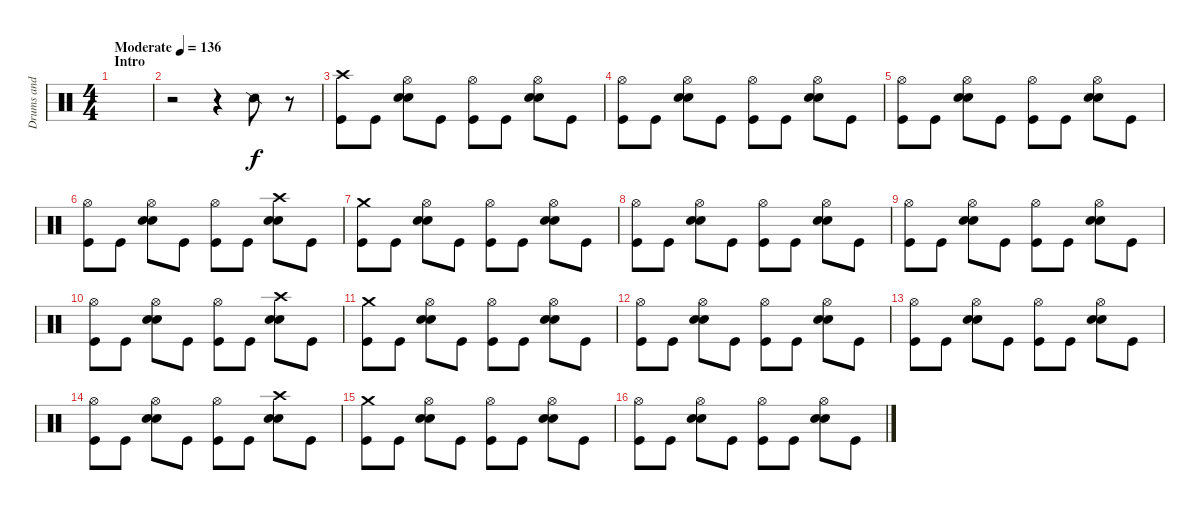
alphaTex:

\track ("Drums and Percussions" "Drums and ") {instrument percussion}
\staff {score}
\articulation defaults
\ts (4 4)
\section ("" "Intro")
\tempo (136 "Moderate")
\clef neutral
\ks c
|
r.2 r.4 "Snare (side stick) 2".8 r.8 |
("Crash high (hit)" "Kick (hit)").8 "Kick (hit)".8 ("Hi-Hat (open)" "Electric Snare (hit)" "Electric Snare (hit)").8 "Kick (hit)".8 ("Hi-Hat (open)" "Kick (hit)").8 "Kick (hit)".8 ("Hi-Hat (open)" "Electric Snare (hit)" "Electric Snare (hit)").8 "Kick (hit)".8 |
("Hi-Hat (open)" "Kick (hit)").8 "Kick (hit)".8 ("Hi-Hat (open)" "Electric Snare (hit)" "Electric Snare (hit)").8 "Kick (hit)".8 ("Hi-Hat (open)" "Kick (hit)").8 "Kick (hit)".8 ("Hi-Hat (open)" "Electric Snare (hit)" "Electric Snare (hit)").8 "Kick (hit)".8 |
("Hi-Hat (open)" "Kick (hit)").8 "Kick (hit)".8 ("Hi-Hat (open)" "Electric Snare (hit)" "Electric Snare (hit)").8 "Kick (hit)".8 ("Hi-Hat (open)" "Kick (hit)").8 "Kick (hit)".8 ("Hi-Hat (open)" "Electric Snare (hit)" "Electric Snare (hit)").8 "Kick (hit)".8 |
("Hi-Hat (open)" "Kick (hit)").8 "Kick (hit)".8 ("Hi-Hat (open)" "Electric Snare (hit)" "Electric Snare (hit)").8 "Kick (hit)".8 ("Hi-Hat (open)" "Kick (hit)").8 "Kick (hit)".8 ("Crash high (hit)" "Electric Snare (hit)" "Electric Snare (hit)").8 "Kick (hit)".8 |
("Crash medium (hit)" "Kick (hit)").8 "Kick (hit)".8 ("Hi-Hat (open)" "Electric Snare (hit)" "Electric Snare (hit)").8 "Kick (hit)".8 ("Hi-Hat (open)" "Kick (hit)").8 "Kick (hit)".8 ("Hi-Hat (open)" "Electric Snare (hit)" "Electric Snare (hit)").8 "Kick (hit)".8 |
("Hi-Hat (open)" "Kick (hit)").8 "Kick (hit)".8 ("Hi-Hat (open)" "Electric Snare (hit)" "Electric Snare (hit)").8 "Kick (hit)".8 ("Hi-Hat (open)" "Kick (hit)").8 "Kick (hit)".8 ("Hi-Hat (open)" "Electric Snare (hit)" "Electric Snare (hit)").8 "Kick (hit)".8 |
("Hi-Hat (open)" "Kick (hit)").8 "Kick (hit)".8 ("Hi-Hat (open)" "Electric Snare (hit)" "Electric Snare (hit)").8 "Kick (hit)".8 ("Hi-Hat (open)" "Kick (hit)").8 "Kick (hit)".8 ("Hi-Hat (open)" "Electric Snare (hit)" "Electric Snare (hit)").8 "Kick (hit)".8 |
("Hi-Hat (open)" "Kick (hit)").8 "Kick (hit)".8 ("Hi-Hat (open)" "Electric Snare (hit)" "Electric Snare (hit)").8 "Kick (hit)".8 ("Hi-Hat (open)" "Kick (hit)").8 "Kick (hit)".8 ("Crash high (hit)" "Electric Snare (hit)" "Electric Snare (hit)").8 "Kick (hit)".8 |
("Crash medium (hit)" "Kick (hit)").8 "Kick (hit)".8 ("Hi-Hat (open)" "Electric Snare (hit)" "Electric Snare (hit)").8 "Kick (hit)".8 ("Hi-Hat (open)" "Kick (hit)").8 "Kick (hit)".8 ("Hi-Hat (open)" "Electric Snare (hit)" "Electric Snare (hit)").8 "Kick (hit)".8 |
("Hi-Hat (open)" "Kick (hit)").8 "Kick (hit)".8 ("Hi-Hat (open)" "Electric Snare (hit)" "Electric Snare (hit)").8 "Kick (hit)".8 ("Hi-Hat (open)" "Kick (hit)").8 "Kick (hit)".8 ("Hi-Hat (open)" "Electric Snare (hit)" "Electric Snare (hit)").8 "Kick (hit)".8 |
("Hi-Hat (open)" "Kick (hit)").8 "Kick (hit)".8 ("Hi-Hat (open)" "Electric Snare (hit)" "Electric Snare (hit)").8 "Kick (hit)".8 ("Hi-Hat (open)" "Kick (hit)").8 "Kick (hit)".8 ("Hi-Hat (open)" "Electric Snare (hit)" "Electric Snare (hit)").8 "Kick (hit)".8 |
("Hi-Hat (open)" "Kick (hit)").8 "Kick (hit)".8 ("Hi-Hat (open)" "Electric Snare (hit)" "Electric Snare (hit)").8 "Kick (hit)".8 ("Hi-Hat (open)" "Kick (hit)").8 "Kick (hit)".8 ("Crash high (hit)" "Electric Snare (hit)" "Electric Snare (hit)").8 "Kick (hit)".8 |
("Crash medium (hit)" "Kick (hit)").8 "Kick (hit)".8 ("Hi-Hat (open)" "Electric Snare (hit)" "Electric Snare (hit)").8 "Kick (hit)".8 ("Hi-Hat (open)" "Kick (hit)").8 "Kick (hit)".8 ("Hi-Hat (open)" "Electric Snare (hit)" "Electric Snare (hit)").8 "Kick (hit)".8 |
("Hi-Hat (open)" "Kick (hit)").8 "Kick (hit)".8 ("Hi-Hat (open)" "Electric Snare (hit)" "Electric Snare (hit)").8 "Kick (hit)".8 ("Hi-Hat (open)" "Kick (hit)").8 "Kick (hit)".8 ("Hi-Hat (open)" "Electric Snare (hit)" "Electric Snare (hit)").8 "Kick (hit)".8
